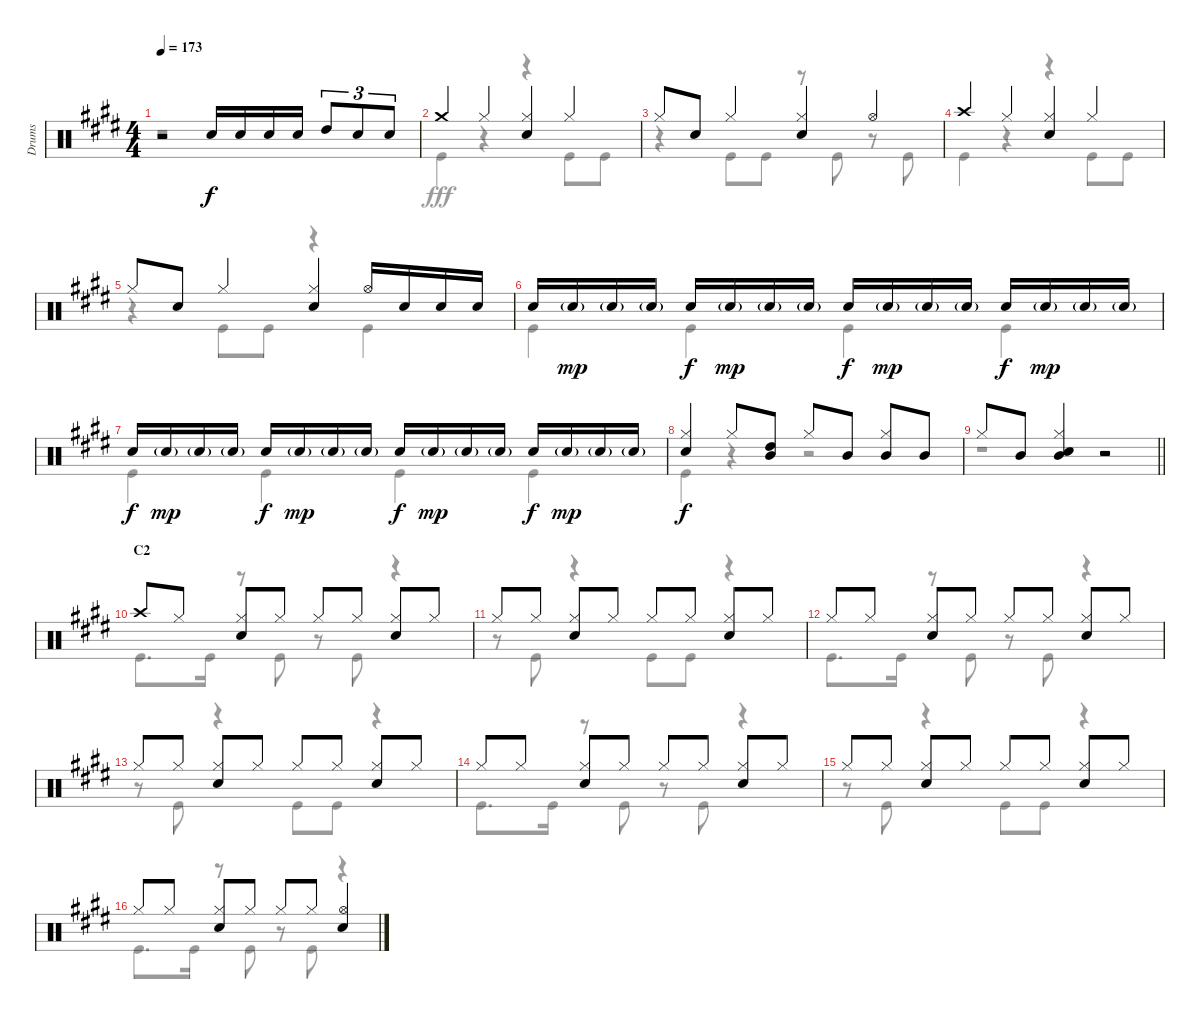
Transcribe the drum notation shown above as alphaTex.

\track ("Drums" "Drums") {instrument percussion}
\staff {score}
\articulation defaults
\voice
\ts (4 4)
\tempo 173
\clef neutral
\ks e
r.2{dy f} "Snare (hit) 2".16 "Snare (hit) 2".16 "Snare (hit) 2".16 "Snare (hit) 2".16 "High Tom (hit)".8{tu (3 2)} "Snare (hit) 2".8{tu (3 2)} "Snare (hit) 2".8{tu (3 2)} |
"Crash medium (hit)".4 "Hi-Hat (closed)".4 ("Hi-Hat (closed)" "Snare (hit) 2").4 "Hi-Hat (closed)".4 |
"Hi-Hat (closed)".8 "Snare (hit) 2".8 "Hi-Hat (closed)".4 ("Hi-Hat (closed)" "Snare (hit) 2").4 "Hi-Hat (open)".4 |
"Crash high (hit)".4 "Hi-Hat (closed)".4 ("Hi-Hat (closed)" "Snare (hit) 2").4 "Hi-Hat (closed)".4 |
"Hi-Hat (closed)".8 "Snare (hit) 2".8 "Hi-Hat (closed)".4 ("Hi-Hat (closed)" "Snare (hit) 2").4 "Hi-Hat (open)".16 "Snare (hit) 2".16 "Snare (hit) 2".16 "Snare (hit) 2".16 |
"Snare (hit) 2".16 "Snare (hit) 2"{g}.16{dy mp} "Snare (hit) 2"{g}.16 "Snare (hit) 2"{g}.16 "Snare (hit) 2".16{dy f} "Snare (hit) 2"{g}.16{dy mp} "Snare (hit) 2"{g}.16 "Snare (hit) 2"{g}.16 "Snare (hit) 2".16{dy f} "Snare (hit) 2"{g}.16{dy mp} "Snare (hit) 2"{g}.16 "Snare (hit) 2"{g}.16 "Snare (hit) 2".16{dy f} "Snare (hit) 2"{g}.16{dy mp} "Snare (hit) 2"{g}.16 "Snare (hit) 2"{g}.16 |
"Snare (hit) 2".16{dy f} "Snare (hit) 2"{g}.16{dy mp} "Snare (hit) 2"{g}.16 "Snare (hit) 2"{g}.16 "Snare (hit) 2".16{dy f} "Snare (hit) 2"{g}.16{dy mp} "Snare (hit) 2"{g}.16 "Snare (hit) 2"{g}.16 "Snare (hit) 2".16{dy f} "Snare (hit) 2"{g}.16{dy mp} "Snare (hit) 2"{g}.16 "Snare (hit) 2"{g}.16 "Snare (hit) 2".16{dy f} "Snare (hit) 2"{g}.16{dy mp} "Snare (hit) 2"{g}.16 "Snare (hit) 2"{g}.16 |
("Hi-Hat (closed)" "Snare (hit) 2").4{dy f} "Hi-Hat (closed)".8 ("High Tom (hit)" "Mid Tom (hit)").8 "Hi-Hat (closed)".8 "Mid Tom (hit)".8 ("Hi-Hat (closed)" "Mid Tom (hit)").8 "Mid Tom (hit)".8 |
\barLineRight lightlight "Hi-Hat (closed)".8 "Mid Tom (hit)".8
("Hi-Hat (closed)" "Mid Tom (hit)" "Snare (hit) 2").4 r.2 |
\section ("" "C2")
"Crash high (hit)".8 "Hi-Hat (closed)".8 ("Hi-Hat (closed)" "Snare (hit) 2").8 "Hi-Hat (closed)".8 "Hi-Hat (closed)".8 "Hi-Hat (closed)".8 ("Hi-Hat (closed)" "Snare (hit) 2").8 "Hi-Hat (closed)".8 |
"Hi-Hat (closed)".8 "Hi-Hat (closed)".8 ("Hi-Hat (closed)" "Snare (hit) 2").8 "Hi-Hat (closed)".8 "Hi-Hat (closed)".8 "Hi-Hat (closed)".8 ("Hi-Hat (closed)" "Snare (hit) 2").8 "Hi-Hat (closed)".8 |
"Hi-Hat (closed)".8 "Hi-Hat (closed)".8 ("Hi-Hat (closed)" "Snare (hit) 2").8 "Hi-Hat (closed)".8 "Hi-Hat (closed)".8 "Hi-Hat (closed)".8 ("Hi-Hat (closed)" "Snare (hit) 2").8 "Hi-Hat (closed)".8 |
"Hi-Hat (closed)".8 "Hi-Hat (closed)".8 ("Hi-Hat (closed)" "Snare (hit) 2").8 "Hi-Hat (closed)".8 "Hi-Hat (closed)".8 "Hi-Hat (closed)".8 ("Hi-Hat (closed)" "Snare (hit) 2").8 "Hi-Hat (closed)".8 |
"Hi-Hat (closed)".8 "Hi-Hat (closed)".8 ("Hi-Hat (closed)" "Snare (hit) 2").8 "Hi-Hat (closed)".8 "Hi-Hat (closed)".8 "Hi-Hat (closed)".8 ("Hi-Hat (closed)" "Snare (hit) 2").8 "Hi-Hat (closed)".8 |
"Hi-Hat (closed)".8 "Hi-Hat (closed)".8 ("Hi-Hat (closed)" "Snare (hit) 2").8 "Hi-Hat (closed)".8 "Hi-Hat (closed)".8 "Hi-Hat (closed)".8 ("Hi-Hat (closed)" "Snare (hit) 2").8 "Hi-Hat (closed)".8 |
"Hi-Hat (closed)".8 "Hi-Hat (closed)".8 ("Hi-Hat (closed)" "Snare (hit) 2").8 "Hi-Hat (closed)".8 "Hi-Hat (closed)".8 "Hi-Hat (closed)".8 ("Hi-Hat (open)" "Snare (hit) 2").4
\voice
\clef neutral
\ottava regular
\simile none
\ks e
r.1{dy fff} |
"Kick (hit)".4 r.4 r.4 "Kick (hit)".8 "Kick (hit)".8 |
r.4 "Kick (hit)".8 "Kick (hit)".8 r.8 "Kick (hit)".8 r.8 "Kick (hit)".8 |
"Kick (hit)".4 r.4 r.4 "Kick (hit)".8 "Kick (hit)".8 |
r.4 "Kick (hit)".8 "Kick (hit)".8 r.4 "Kick (hit)".4 |
"Kick (hit)".4 "Kick (hit)".4 "Kick (hit)".4 "Kick (hit)".4 |
"Kick (hit)".4 "Kick (hit)".4 "Kick (hit)".4 "Kick (hit)".4 |
"Kick (hit)".4 r.4 r.2 |
\barLineRight lightlight
r.1 |
"Kick (hit)".8{d} "Kick (hit)".16 r.8 "Kick (hit)".8 r.8 "Kick (hit)".8 r.4 |
r.8 "Kick (hit)".8 r.4 "Kick (hit)".8 "Kick (hit)".8 r.4 |
"Kick (hit)".8{d} "Kick (hit)".16 r.8 "Kick (hit)".8 r.8 "Kick (hit)".8 r.4 |
r.8 "Kick (hit)".8 r.4 "Kick (hit)".8 "Kick (hit)".8 r.4 |
"Kick (hit)".8{d} "Kick (hit)".16 r.8 "Kick (hit)".8 r.8 "Kick (hit)".8 r.4 |
r.8 "Kick (hit)".8 r.4 "Kick (hit)".8 "Kick (hit)".8 r.4 |
"Kick (hit)".8{d} "Kick (hit)".16 r.8 "Kick (hit)".8 r.8 "Kick (hit)".8 r.4
